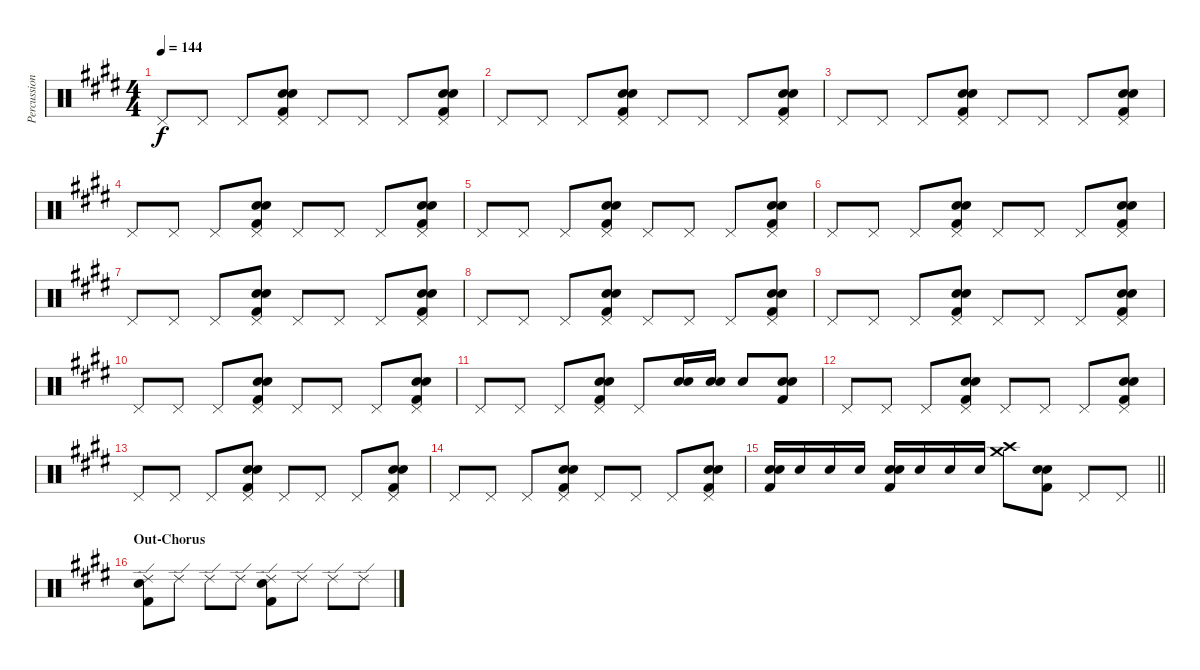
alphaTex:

\track ("Percussion" "Percussion") {instrument percussion}
\staff {score}
\articulation defaults
\ts (4 4)
\tempo 144
\clef neutral
\ks c#minor "Pedal Hi-Hat (hit)".8{dy f} "Pedal Hi-Hat (hit)".8 "Pedal Hi-Hat (hit)".8
("Pedal Hi-Hat (hit)" "Snare (hit) 2" "Snare (hit) 2" "Kick (hit) 2").8 "Pedal Hi-Hat (hit)".8 "Pedal Hi-Hat (hit)".8 "Pedal Hi-Hat (hit)".8 ("Pedal Hi-Hat (hit)" "Snare (hit) 2" "Snare (hit) 2" "Kick (hit) 2").8 |
"Pedal Hi-Hat (hit)".8 "Pedal Hi-Hat (hit)".8 "Pedal Hi-Hat (hit)".8 ("Pedal Hi-Hat (hit)" "Snare (hit) 2" "Snare (hit) 2" "Kick (hit) 2").8 "Pedal Hi-Hat (hit)".8 "Pedal Hi-Hat (hit)".8 "Pedal Hi-Hat (hit)".8 ("Pedal Hi-Hat (hit)" "Snare (hit) 2" "Snare (hit) 2" "Kick (hit) 2").8 |
\ks e "Pedal Hi-Hat (hit)".8 "Pedal Hi-Hat (hit)".8 "Pedal Hi-Hat (hit)".8
("Pedal Hi-Hat (hit)" "Snare (hit) 2" "Snare (hit) 2" "Kick (hit) 2").8 "Pedal Hi-Hat (hit)".8 "Pedal Hi-Hat (hit)".8 "Pedal Hi-Hat (hit)".8 ("Pedal Hi-Hat (hit)" "Snare (hit) 2" "Snare (hit) 2" "Kick (hit) 2").8 |
\ks c#minor "Pedal Hi-Hat (hit)".8 "Pedal Hi-Hat (hit)".8 "Pedal Hi-Hat (hit)".8
("Pedal Hi-Hat (hit)" "Snare (hit) 2" "Snare (hit) 2" "Kick (hit) 2").8 "Pedal Hi-Hat (hit)".8 "Pedal Hi-Hat (hit)".8 "Pedal Hi-Hat (hit)".8 ("Pedal Hi-Hat (hit)" "Snare (hit) 2" "Snare (hit) 2" "Kick (hit) 2").8 |
"Pedal Hi-Hat (hit)".8 "Pedal Hi-Hat (hit)".8 "Pedal Hi-Hat (hit)".8 ("Pedal Hi-Hat (hit)" "Snare (hit) 2" "Snare (hit) 2" "Kick (hit) 2").8 "Pedal Hi-Hat (hit)".8 "Pedal Hi-Hat (hit)".8 "Pedal Hi-Hat (hit)".8 ("Pedal Hi-Hat (hit)" "Snare (hit) 2" "Snare (hit) 2" "Kick (hit) 2").8 |
\ks e "Pedal Hi-Hat (hit)".8 "Pedal Hi-Hat (hit)".8 "Pedal Hi-Hat (hit)".8
("Pedal Hi-Hat (hit)" "Snare (hit) 2" "Snare (hit) 2" "Kick (hit) 2").8 "Pedal Hi-Hat (hit)".8 "Pedal Hi-Hat (hit)".8 "Pedal Hi-Hat (hit)".8 ("Pedal Hi-Hat (hit)" "Snare (hit) 2" "Snare (hit) 2" "Kick (hit) 2").8 |
\ks c#minor "Pedal Hi-Hat (hit)".8 "Pedal Hi-Hat (hit)".8 "Pedal Hi-Hat (hit)".8
("Pedal Hi-Hat (hit)" "Snare (hit) 2" "Snare (hit) 2" "Kick (hit) 2").8 "Pedal Hi-Hat (hit)".8 "Pedal Hi-Hat (hit)".8 "Pedal Hi-Hat (hit)".8 ("Pedal Hi-Hat (hit)" "Snare (hit) 2" "Snare (hit) 2" "Kick (hit) 2").8 |
"Pedal Hi-Hat (hit)".8 "Pedal Hi-Hat (hit)".8 "Pedal Hi-Hat (hit)".8 ("Pedal Hi-Hat (hit)" "Snare (hit) 2" "Snare (hit) 2" "Kick (hit) 2").8 "Pedal Hi-Hat (hit)".8 "Pedal Hi-Hat (hit)".8 "Pedal Hi-Hat (hit)".8 ("Pedal Hi-Hat (hit)" "Snare (hit) 2" "Snare (hit) 2" "Kick (hit) 2").8 |
\ks e "Pedal Hi-Hat (hit)".8 "Pedal Hi-Hat (hit)".8 "Pedal Hi-Hat (hit)".8
("Pedal Hi-Hat (hit)" "Snare (hit) 2" "Snare (hit) 2" "Kick (hit) 2").8 "Pedal Hi-Hat (hit)".8 "Pedal Hi-Hat (hit)".8 "Pedal Hi-Hat (hit)".8 ("Pedal Hi-Hat (hit)" "Snare (hit) 2" "Snare (hit) 2" "Kick (hit) 2").8 |
\ks c#minor "Pedal Hi-Hat (hit)".8 "Pedal Hi-Hat (hit)".8 "Pedal Hi-Hat (hit)".8
("Pedal Hi-Hat (hit)" "Snare (hit) 2" "Snare (hit) 2" "Kick (hit) 2").8 "Pedal Hi-Hat (hit)".8 "Pedal Hi-Hat (hit)".8 "Pedal Hi-Hat (hit)".8 ("Pedal Hi-Hat (hit)" "Snare (hit) 2" "Snare (hit) 2" "Kick (hit) 2").8 |
\ks e "Pedal Hi-Hat (hit)".8 "Pedal Hi-Hat (hit)".8 "Pedal Hi-Hat (hit)".8
("Pedal Hi-Hat (hit)" "Snare (hit) 2" "Snare (hit) 2" "Kick (hit) 2").8 "Pedal Hi-Hat (hit)".8 ("Snare (hit) 2" "Snare (hit) 2").16 ("Snare (hit) 2" "Snare (hit) 2").16 "Snare (hit) 2".8 ("Snare (hit) 2" "Snare (hit) 2" "Kick (hit) 2").8 |
\ks c#minor "Pedal Hi-Hat (hit)".8 "Pedal Hi-Hat (hit)".8 "Pedal Hi-Hat (hit)".8
("Pedal Hi-Hat (hit)" "Snare (hit) 2" "Snare (hit) 2" "Kick (hit) 2").8 "Pedal Hi-Hat (hit)".8 "Pedal Hi-Hat (hit)".8 "Pedal Hi-Hat (hit)".8 ("Pedal Hi-Hat (hit)" "Snare (hit) 2" "Snare (hit) 2" "Kick (hit) 2").8 |
"Pedal Hi-Hat (hit)".8 "Pedal Hi-Hat (hit)".8 "Pedal Hi-Hat (hit)".8 ("Pedal Hi-Hat (hit)" "Snare (hit) 2" "Snare (hit) 2" "Kick (hit) 2").8 "Pedal Hi-Hat (hit)".8 "Pedal Hi-Hat (hit)".8 "Pedal Hi-Hat (hit)".8 ("Pedal Hi-Hat (hit)" "Snare (hit) 2" "Snare (hit) 2" "Kick (hit) 2").8 |
"Pedal Hi-Hat (hit)".8 "Pedal Hi-Hat (hit)".8 "Pedal Hi-Hat (hit)".8 ("Pedal Hi-Hat (hit)" "Snare (hit) 2" "Snare (hit) 2" "Kick (hit) 2").8 "Pedal Hi-Hat (hit)".8 "Pedal Hi-Hat (hit)".8 "Pedal Hi-Hat (hit)".8 ("Pedal Hi-Hat (hit)" "Snare (hit) 2" "Snare (hit) 2" "Kick (hit) 2").8 |
\barLineRight lightlight
("Snare (hit) 2" "Snare (hit) 2" "Kick (hit) 2").16 "Snare (hit) 2".16 "Snare (hit) 2".16 "Snare (hit) 2".16 ("Snare (hit) 2" "Snare (hit) 2" "Kick (hit) 2").16 "Snare (hit) 2".16 "Snare (hit) 2".16 "Snare (hit) 2".16 ("Crash high (hit)" "Crash medium (hit)").8 ("Snare (hit) 2" "Snare (hit) 2" "Kick (hit) 2").8 "Pedal Hi-Hat (hit)".8 "Pedal Hi-Hat (hit)".8 |
\section ("" "Out-Chorus")
\ks e
("Ride (edge) 2" "Snare (hit) 2" "Kick (hit) 2").8 "Ride (edge) 2".8 "Ride (edge) 2".8 "Ride (edge) 2".8 ("Ride (edge) 2" "Snare (hit) 2" "Kick (hit) 2").8 "Ride (edge) 2".8 "Ride (edge) 2".8 "Ride (edge) 2".8
